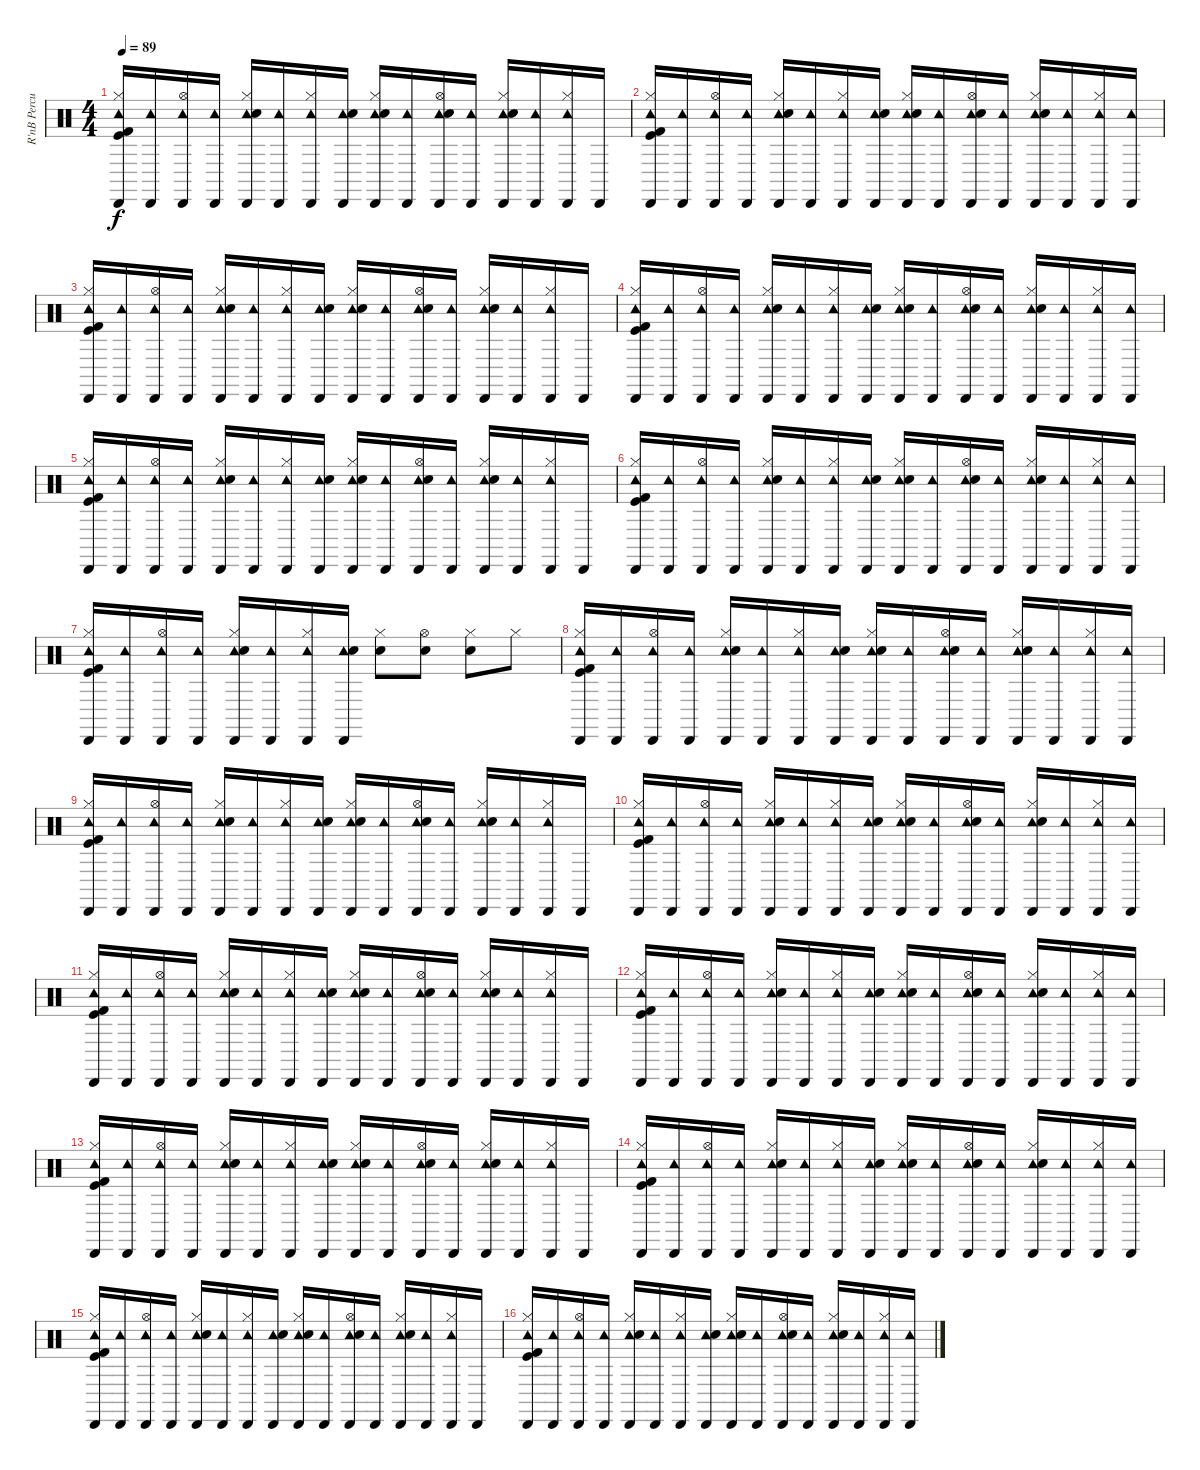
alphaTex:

\track ("R'nB Percussion" "R'nB Percu") {instrument percussion}
\staff {score}
\articulation defaults
\ts (4 4)
\tempo 89
\clef neutral
\ks c
("Tambourine (hit)" "Cabasa (hit)" "Kick (hit)" "Kick (hit) 2" "Hi-Hat (closed)").16{dy f} ("Cabasa (hit)" "Tambourine (hit)").16 ("Tambourine (hit)" "Cabasa (hit)" "Hi-Hat (open)").16 ("Cabasa (hit)" "Tambourine (hit)").16 ("Cabasa (hit)" "Tambourine (hit)" "Hi-Hat (closed)" "Hand Clap (hit)").16 ("Tambourine (hit)" "Cabasa (hit)").16 ("Cabasa (hit)" "Tambourine (hit)" "Hi-Hat (closed)").16 ("Cabasa (hit)" "Tambourine (hit)" "Hand Clap (hit)").16 ("Cabasa (hit)" "Tambourine (hit)" "Hand Clap (hit)" "Hi-Hat (closed)").16 ("Tambourine (hit)" "Cabasa (hit)").16 ("Tambourine (hit)" "Cabasa (hit)" "Hand Clap (hit)" "Hi-Hat (open)").16 ("Cabasa (hit)" "Tambourine (hit)").16 ("Cabasa (hit)" "Tambourine (hit)" "Hi-Hat (closed)" "Hand Clap (hit)").16 ("Tambourine (hit)" "Cabasa (hit)").16 ("Tambourine (hit)" "Cabasa (hit)" "Hi-Hat (closed)").16 "Cabasa (hit)".16 |
("Cabasa (hit)" "Tambourine (hit)" "Kick (hit)" "Kick (hit) 2" "Hi-Hat (closed)").16 ("Tambourine (hit)" "Cabasa (hit)").16 ("Tambourine (hit)" "Cabasa (hit)" "Hi-Hat (open)").16 ("Tambourine (hit)" "Cabasa (hit)").16 ("Cabasa (hit)" "Tambourine (hit)" "Hi-Hat (closed)" "Hand Clap (hit)").16 ("Tambourine (hit)" "Cabasa (hit)").16 ("Tambourine (hit)" "Cabasa (hit)" "Hi-Hat (closed)").16 ("Tambourine (hit)" "Cabasa (hit)" "Hand Clap (hit)").16 ("Tambourine (hit)" "Cabasa (hit)" "Hi-Hat (closed)" "Hand Clap (hit)").16 ("Tambourine (hit)" "Cabasa (hit)").16 ("Tambourine (hit)" "Cabasa (hit)" "Hi-Hat (open)" "Hand Clap (hit)").16 ("Tambourine (hit)" "Cabasa (hit)").16 ("Tambourine (hit)" "Cabasa (hit)" "Hand Clap (hit)" "Hi-Hat (closed)").16 ("Tambourine (hit)" "Cabasa (hit)").16 ("Tambourine (hit)" "Cabasa (hit)" "Hi-Hat (closed)").16 ("Cabasa (hit)" "Tambourine (hit)").16 |
("Tambourine (hit)" "Cabasa (hit)" "Kick (hit)" "Kick (hit) 2" "Hi-Hat (closed)").16 ("Cabasa (hit)" "Tambourine (hit)").16 ("Tambourine (hit)" "Cabasa (hit)" "Hi-Hat (open)").16 ("Cabasa (hit)" "Tambourine (hit)").16 ("Cabasa (hit)" "Tambourine (hit)" "Hi-Hat (closed)" "Hand Clap (hit)").16 ("Tambourine (hit)" "Cabasa (hit)").16 ("Cabasa (hit)" "Tambourine (hit)" "Hi-Hat (closed)").16 ("Cabasa (hit)" "Tambourine (hit)" "Hand Clap (hit)").16 ("Cabasa (hit)" "Tambourine (hit)" "Hand Clap (hit)" "Hi-Hat (closed)").16 ("Tambourine (hit)" "Cabasa (hit)").16 ("Tambourine (hit)" "Cabasa (hit)" "Hand Clap (hit)" "Hi-Hat (open)").16 ("Cabasa (hit)" "Tambourine (hit)").16 ("Cabasa (hit)" "Tambourine (hit)" "Hi-Hat (closed)" "Hand Clap (hit)").16 ("Tambourine (hit)" "Cabasa (hit)").16 ("Tambourine (hit)" "Cabasa (hit)" "Hi-Hat (closed)").16 "Cabasa (hit)".16 |
("Cabasa (hit)" "Tambourine (hit)" "Kick (hit) 2" "Kick (hit)" "Hi-Hat (closed)").16 ("Tambourine (hit)" "Cabasa (hit)").16 ("Tambourine (hit)" "Cabasa (hit)" "Hi-Hat (open)").16 ("Tambourine (hit)" "Cabasa (hit)").16 ("Cabasa (hit)" "Tambourine (hit)" "Hand Clap (hit)" "Hi-Hat (closed)").16 ("Cabasa (hit)" "Tambourine (hit)").16 ("Cabasa (hit)" "Tambourine (hit)" "Hi-Hat (closed)").16 ("Tambourine (hit)" "Cabasa (hit)" "Hand Clap (hit)").16 ("Cabasa (hit)" "Tambourine (hit)" "Hand Clap (hit)" "Hi-Hat (closed)").16 ("Tambourine (hit)" "Cabasa (hit)").16 ("Tambourine (hit)" "Cabasa (hit)" "Hand Clap (hit)" "Hi-Hat (open)").16 ("Cabasa (hit)" "Tambourine (hit)").16 ("Tambourine (hit)" "Cabasa (hit)" "Hand Clap (hit)" "Hi-Hat (closed)").16 ("Tambourine (hit)" "Cabasa (hit)").16 ("Cabasa (hit)" "Tambourine (hit)" "Hi-Hat (closed)").16 ("Tambourine (hit)" "Cabasa (hit)").16 |
("Cabasa (hit)" "Tambourine (hit)" "Kick (hit) 2" "Kick (hit)" "Hi-Hat (closed)").16 ("Cabasa (hit)" "Tambourine (hit)").16 ("Cabasa (hit)" "Tambourine (hit)" "Hi-Hat (open)").16 ("Tambourine (hit)" "Cabasa (hit)").16 ("Cabasa (hit)" "Tambourine (hit)" "Hi-Hat (closed)" "Hand Clap (hit)").16 ("Cabasa (hit)" "Tambourine (hit)").16 ("Cabasa (hit)" "Tambourine (hit)" "Hi-Hat (closed)").16 ("Cabasa (hit)" "Tambourine (hit)" "Hand Clap (hit)").16 ("Tambourine (hit)" "Cabasa (hit)" "Hi-Hat (closed)" "Hand Clap (hit)").16 ("Tambourine (hit)" "Cabasa (hit)").16 ("Tambourine (hit)" "Cabasa (hit)" "Hi-Hat (open)" "Hand Clap (hit)").16 ("Cabasa (hit)" "Tambourine (hit)").16 ("Cabasa (hit)" "Tambourine (hit)" "Hi-Hat (closed)" "Hand Clap (hit)").16 ("Tambourine (hit)" "Cabasa (hit)").16 ("Tambourine (hit)" "Cabasa (hit)" "Hi-Hat (closed)").16 "Cabasa (hit)".16 |
("Tambourine (hit)" "Cabasa (hit)" "Hi-Hat (closed)" "Kick (hit)" "Kick (hit) 2").16 ("Tambourine (hit)" "Cabasa (hit)").16 ("Cabasa (hit)" "Tambourine (hit)" "Hi-Hat (open)").16 ("Cabasa (hit)" "Tambourine (hit)").16 ("Tambourine (hit)" "Cabasa (hit)" "Hi-Hat (closed)" "Hand Clap (hit)").16 ("Cabasa (hit)" "Tambourine (hit)").16 ("Tambourine (hit)" "Cabasa (hit)" "Hi-Hat (closed)").16 ("Tambourine (hit)" "Cabasa (hit)" "Hand Clap (hit)").16 ("Tambourine (hit)" "Cabasa (hit)" "Hi-Hat (closed)" "Hand Clap (hit)").16 ("Cabasa (hit)" "Tambourine (hit)").16 ("Cabasa (hit)" "Tambourine (hit)" "Hi-Hat (open)" "Hand Clap (hit)").16 ("Tambourine (hit)" "Cabasa (hit)").16 ("Cabasa (hit)" "Tambourine (hit)" "Hand Clap (hit)" "Hi-Hat (closed)").16 ("Cabasa (hit)" "Tambourine (hit)").16 ("Cabasa (hit)" "Tambourine (hit)" "Hi-Hat (closed)").16 ("Tambourine (hit)" "Cabasa (hit)").16 |
("Cabasa (hit)" "Tambourine (hit)" "Kick (hit)" "Kick (hit) 2" "Hi-Hat (closed)").16 ("Cabasa (hit)" "Tambourine (hit)").16 ("Cabasa (hit)" "Tambourine (hit)" "Hi-Hat (open)").16 ("Tambourine (hit)" "Cabasa (hit)").16 ("Tambourine (hit)" "Cabasa (hit)" "Hi-Hat (closed)" "Hand Clap (hit)").16 ("Tambourine (hit)" "Cabasa (hit)").16 ("Tambourine (hit)" "Cabasa (hit)" "Hi-Hat (closed)").16 ("Tambourine (hit)" "Cabasa (hit)" "Hand Clap (hit)").16 ("Hand Clap (hit)" "Hi-Hat (closed)").8 ("Hi-Hat (open)" "Hand Clap (hit)").8 ("Hand Clap (hit)" "Hi-Hat (closed)").8 "Hi-Hat (closed)".8 |
("Cabasa (hit)" "Tambourine (hit)" "Kick (hit)" "Kick (hit) 2" "Hi-Hat (closed)").16 ("Cabasa (hit)" "Tambourine (hit)").16 ("Tambourine (hit)" "Cabasa (hit)" "Hi-Hat (open)").16 ("Cabasa (hit)" "Tambourine (hit)").16 ("Cabasa (hit)" "Tambourine (hit)" "Hi-Hat (closed)" "Hand Clap (hit)").16 ("Tambourine (hit)" "Cabasa (hit)").16 ("Cabasa (hit)" "Tambourine (hit)" "Hi-Hat (closed)").16 ("Tambourine (hit)" "Cabasa (hit)" "Hand Clap (hit)").16 ("Tambourine (hit)" "Cabasa (hit)" "Hi-Hat (closed)" "Hand Clap (hit)").16 ("Tambourine (hit)" "Cabasa (hit)").16 ("Tambourine (hit)" "Cabasa (hit)" "Hi-Hat (open)" "Hand Clap (hit)").16 ("Cabasa (hit)" "Tambourine (hit)").16 ("Cabasa (hit)" "Tambourine (hit)" "Hand Clap (hit)" "Hi-Hat (closed)").16 ("Tambourine (hit)" "Cabasa (hit)").16 ("Tambourine (hit)" "Cabasa (hit)" "Hi-Hat (closed)").16 ("Cabasa (hit)" "Tambourine (hit)").16 |
("Tambourine (hit)" "Cabasa (hit)" "Kick (hit) 2" "Hi-Hat (closed)" "Kick (hit)").16 ("Cabasa (hit)" "Tambourine (hit)").16 ("Tambourine (hit)" "Cabasa (hit)" "Hi-Hat (open)").16 ("Tambourine (hit)" "Cabasa (hit)").16 ("Cabasa (hit)" "Tambourine (hit)" "Hi-Hat (closed)" "Hand Clap (hit)").16 ("Cabasa (hit)" "Tambourine (hit)").16 ("Tambourine (hit)" "Cabasa (hit)" "Hi-Hat (closed)").16 ("Cabasa (hit)" "Tambourine (hit)" "Hand Clap (hit)").16 ("Cabasa (hit)" "Tambourine (hit)" "Hand Clap (hit)" "Hi-Hat (closed)").16 ("Tambourine (hit)" "Cabasa (hit)").16 ("Tambourine (hit)" "Cabasa (hit)" "Hi-Hat (open)" "Hand Clap (hit)").16 ("Tambourine (hit)" "Cabasa (hit)").16 ("Cabasa (hit)" "Tambourine (hit)" "Hi-Hat (closed)" "Hand Clap (hit)").16 ("Cabasa (hit)" "Tambourine (hit)").16 ("Cabasa (hit)" "Tambourine (hit)" "Hi-Hat (closed)").16 "Cabasa (hit)".16 |
("Cabasa (hit)" "Tambourine (hit)" "Kick (hit)" "Kick (hit) 2" "Hi-Hat (closed)").16 ("Tambourine (hit)" "Cabasa (hit)").16 ("Cabasa (hit)" "Tambourine (hit)" "Hi-Hat (open)").16 ("Tambourine (hit)" "Cabasa (hit)").16 ("Cabasa (hit)" "Tambourine (hit)" "Hi-Hat (closed)" "Hand Clap (hit)").16 ("Tambourine (hit)" "Cabasa (hit)").16 ("Cabasa (hit)" "Tambourine (hit)" "Hi-Hat (closed)").16 ("Cabasa (hit)" "Tambourine (hit)" "Hand Clap (hit)").16 ("Cabasa (hit)" "Tambourine (hit)" "Hi-Hat (closed)" "Hand Clap (hit)").16 ("Tambourine (hit)" "Cabasa (hit)").16 ("Tambourine (hit)" "Cabasa (hit)" "Hi-Hat (open)" "Hand Clap (hit)").16 ("Tambourine (hit)" "Cabasa (hit)").16 ("Cabasa (hit)" "Tambourine (hit)" "Hi-Hat (closed)" "Hand Clap (hit)").16 ("Cabasa (hit)" "Tambourine (hit)").16 ("Tambourine (hit)" "Cabasa (hit)" "Hi-Hat (closed)").16 ("Tambourine (hit)" "Cabasa (hit)").16 |
("Cabasa (hit)" "Tambourine (hit)" "Kick (hit)" "Kick (hit) 2" "Hi-Hat (closed)").16 ("Tambourine (hit)" "Cabasa (hit)").16 ("Tambourine (hit)" "Cabasa (hit)" "Hi-Hat (open)").16 ("Cabasa (hit)" "Tambourine (hit)").16 ("Cabasa (hit)" "Tambourine (hit)" "Hi-Hat (closed)" "Hand Clap (hit)").16 ("Cabasa (hit)" "Tambourine (hit)").16 ("Cabasa (hit)" "Tambourine (hit)" "Hi-Hat (closed)").16 ("Cabasa (hit)" "Tambourine (hit)" "Hand Clap (hit)").16 ("Tambourine (hit)" "Cabasa (hit)" "Hi-Hat (closed)" "Hand Clap (hit)").16 ("Cabasa (hit)" "Tambourine (hit)").16 ("Tambourine (hit)" "Cabasa (hit)" "Hi-Hat (open)" "Hand Clap (hit)").16 ("Tambourine (hit)" "Cabasa (hit)").16 ("Cabasa (hit)" "Tambourine (hit)" "Hand Clap (hit)" "Hi-Hat (closed)").16 ("Tambourine (hit)" "Cabasa (hit)").16 ("Tambourine (hit)" "Cabasa (hit)" "Hi-Hat (closed)").16 "Cabasa (hit)".16 |
("Cabasa (hit)" "Tambourine (hit)" "Kick (hit) 2" "Kick (hit)" "Hi-Hat (closed)").16 ("Cabasa (hit)" "Tambourine (hit)").16 ("Tambourine (hit)" "Cabasa (hit)" "Hi-Hat (open)").16 ("Cabasa (hit)" "Tambourine (hit)").16 ("Tambourine (hit)" "Cabasa (hit)" "Hi-Hat (closed)" "Hand Clap (hit)").16 ("Tambourine (hit)" "Cabasa (hit)").16 ("Cabasa (hit)" "Tambourine (hit)" "Hi-Hat (closed)").16 ("Tambourine (hit)" "Cabasa (hit)" "Hand Clap (hit)").16 ("Cabasa (hit)" "Tambourine (hit)" "Hi-Hat (closed)" "Hand Clap (hit)").16 ("Tambourine (hit)" "Cabasa (hit)").16 ("Cabasa (hit)" "Tambourine (hit)" "Hi-Hat (open)" "Hand Clap (hit)").16 ("Tambourine (hit)" "Cabasa (hit)").16 ("Cabasa (hit)" "Tambourine (hit)" "Hi-Hat (closed)" "Hand Clap (hit)").16 ("Cabasa (hit)" "Tambourine (hit)").16 ("Tambourine (hit)" "Cabasa (hit)" "Hi-Hat (closed)").16 ("Tambourine (hit)" "Cabasa (hit)").16 |
("Tambourine (hit)" "Cabasa (hit)" "Kick (hit) 2" "Hi-Hat (closed)" "Kick (hit)").16 ("Cabasa (hit)" "Tambourine (hit)").16 ("Tambourine (hit)" "Cabasa (hit)" "Hi-Hat (open)").16 ("Tambourine (hit)" "Cabasa (hit)").16 ("Tambourine (hit)" "Cabasa (hit)" "Hi-Hat (closed)" "Hand Clap (hit)").16 ("Cabasa (hit)" "Tambourine (hit)").16 ("Cabasa (hit)" "Tambourine (hit)" "Hi-Hat (closed)").16 ("Cabasa (hit)" "Tambourine (hit)" "Hand Clap (hit)").16 ("Cabasa (hit)" "Tambourine (hit)" "Hand Clap (hit)" "Hi-Hat (closed)").16 ("Cabasa (hit)" "Tambourine (hit)").16 ("Tambourine (hit)" "Cabasa (hit)" "Hi-Hat (open)" "Hand Clap (hit)").16 ("Tambourine (hit)" "Cabasa (hit)").16 ("Cabasa (hit)" "Tambourine (hit)" "Hi-Hat (closed)" "Hand Clap (hit)").16 ("Cabasa (hit)" "Tambourine (hit)").16 ("Tambourine (hit)" "Cabasa (hit)" "Hi-Hat (closed)").16 "Cabasa (hit)".16 |
("Cabasa (hit)" "Tambourine (hit)" "Hi-Hat (closed)" "Kick (hit)" "Kick (hit) 2").16 ("Tambourine (hit)" "Cabasa (hit)").16 ("Cabasa (hit)" "Tambourine (hit)" "Hi-Hat (open)").16 ("Cabasa (hit)" "Tambourine (hit)").16 ("Cabasa (hit)" "Tambourine (hit)" "Hi-Hat (closed)" "Hand Clap (hit)").16 ("Tambourine (hit)" "Cabasa (hit)").16 ("Cabasa (hit)" "Tambourine (hit)" "Hi-Hat (closed)").16 ("Tambourine (hit)" "Cabasa (hit)" "Hand Clap (hit)").16 ("Cabasa (hit)" "Tambourine (hit)" "Hand Clap (hit)" "Hi-Hat (closed)").16 ("Tambourine (hit)" "Cabasa (hit)").16 ("Cabasa (hit)" "Tambourine (hit)" "Hi-Hat (open)" "Hand Clap (hit)").16 ("Tambourine (hit)" "Cabasa (hit)").16 ("Cabasa (hit)" "Tambourine (hit)" "Hi-Hat (closed)" "Hand Clap (hit)").16 ("Tambourine (hit)" "Cabasa (hit)").16 ("Tambourine (hit)" "Cabasa (hit)" "Hi-Hat (closed)").16 ("Tambourine (hit)" "Cabasa (hit)").16 |
("Tambourine (hit)" "Cabasa (hit)" "Kick (hit) 2" "Hi-Hat (closed)" "Kick (hit)").16 ("Tambourine (hit)" "Cabasa (hit)").16 ("Tambourine (hit)" "Cabasa (hit)" "Hi-Hat (open)").16 ("Tambourine (hit)" "Cabasa (hit)").16 ("Tambourine (hit)" "Cabasa (hit)" "Hand Clap (hit)" "Hi-Hat (closed)").16 ("Tambourine (hit)" "Cabasa (hit)").16 ("Tambourine (hit)" "Cabasa (hit)" "Hi-Hat (closed)").16 ("Tambourine (hit)" "Cabasa (hit)" "Hand Clap (hit)").16 ("Tambourine (hit)" "Cabasa (hit)" "Hand Clap (hit)" "Hi-Hat (closed)").16 ("Cabasa (hit)" "Tambourine (hit)").16 ("Cabasa (hit)" "Tambourine (hit)" "Hi-Hat (open)" "Hand Clap (hit)").16 ("Tambourine (hit)" "Cabasa (hit)").16 ("Cabasa (hit)" "Tambourine (hit)" "Hi-Hat (closed)" "Hand Clap (hit)").16 ("Tambourine (hit)" "Cabasa (hit)").16 ("Cabasa (hit)" "Tambourine (hit)" "Hi-Hat (closed)").16 "Cabasa (hit)".16 |
("Cabasa (hit)" "Tambourine (hit)" "Kick (hit) 2" "Kick (hit)" "Hi-Hat (closed)").16 ("Cabasa (hit)" "Tambourine (hit)").16 ("Tambourine (hit)" "Cabasa (hit)" "Hi-Hat (open)").16 ("Cabasa (hit)" "Tambourine (hit)").16 ("Tambourine (hit)" "Cabasa (hit)" "Hi-Hat (closed)" "Hand Clap (hit)").16 ("Tambourine (hit)" "Cabasa (hit)").16 ("Cabasa (hit)" "Tambourine (hit)" "Hi-Hat (closed)").16 ("Tambourine (hit)" "Cabasa (hit)" "Hand Clap (hit)").16 ("Cabasa (hit)" "Tambourine (hit)" "Hi-Hat (closed)" "Hand Clap (hit)").16 ("Tambourine (hit)" "Cabasa (hit)").16 ("Cabasa (hit)" "Tambourine (hit)" "Hi-Hat (open)" "Hand Clap (hit)").16 ("Tambourine (hit)" "Cabasa (hit)").16 ("Cabasa (hit)" "Tambourine (hit)" "Hi-Hat (closed)" "Hand Clap (hit)").16 ("Cabasa (hit)" "Tambourine (hit)").16 ("Tambourine (hit)" "Cabasa (hit)" "Hi-Hat (closed)").16 ("Tambourine (hit)" "Cabasa (hit)").16
